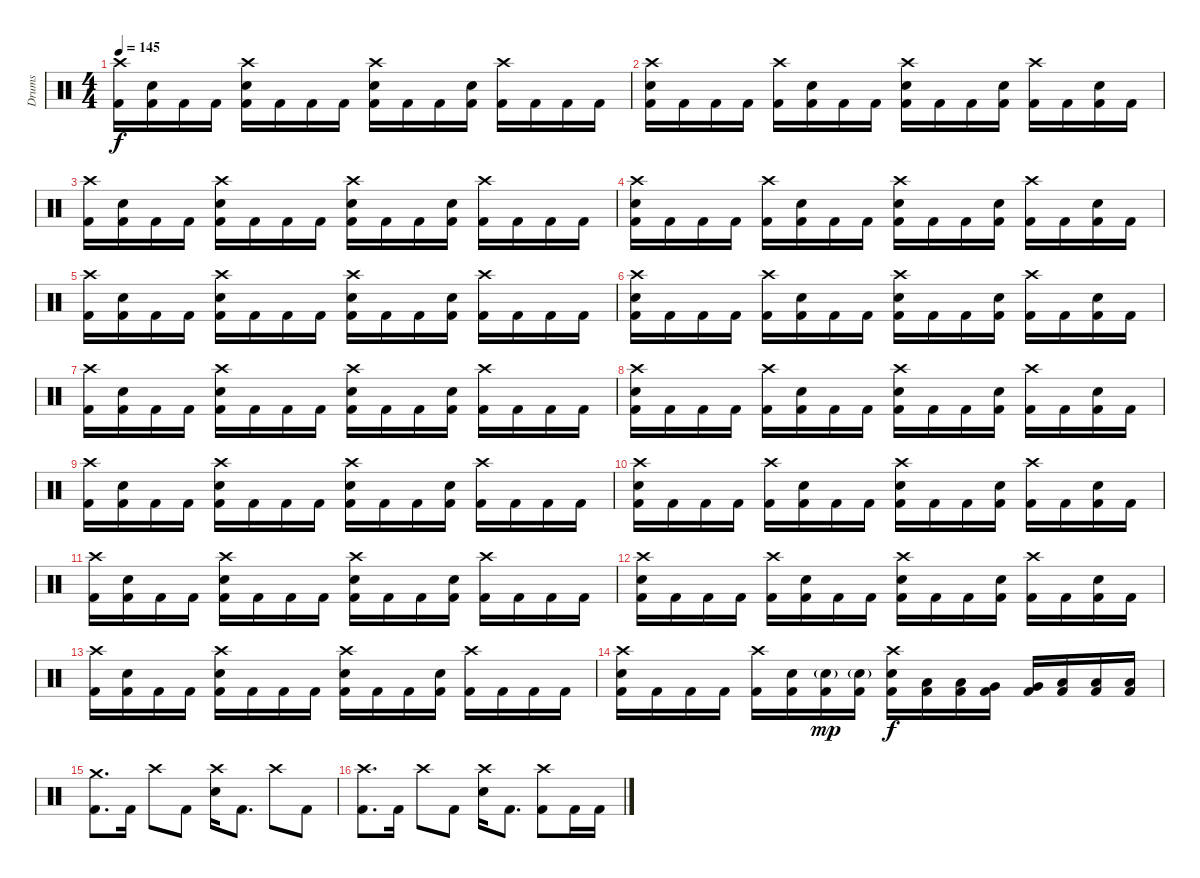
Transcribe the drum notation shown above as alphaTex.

\track ("Drums" "Drums") {instrument percussion}
\staff {score}
\articulation defaults
\ts (4 4)
\tempo 145
\clef neutral
\ks c
("Crash high (hit)" "Kick (hit) 2").16{dy f} ("Snare (hit) 2" "Kick (hit) 2").16 "Kick (hit) 2".16 "Kick (hit) 2".16 ("Crash high (hit)" "Snare (hit) 2" "Kick (hit) 2").16 "Kick (hit) 2".16 "Kick (hit) 2".16 "Kick (hit) 2".16 ("Crash high (hit)" "Snare (hit) 2" "Kick (hit) 2").16 "Kick (hit) 2".16 "Kick (hit) 2".16 ("Snare (hit) 2" "Kick (hit) 2").16 ("Crash high (hit)" "Kick (hit) 2").16 "Kick (hit) 2".16 "Kick (hit) 2".16 "Kick (hit) 2".16 |
("Crash high (hit)" "Snare (hit) 2" "Kick (hit) 2").16 "Kick (hit) 2".16 "Kick (hit) 2".16 "Kick (hit) 2".16 ("Crash high (hit)" "Kick (hit) 2").16 ("Snare (hit) 2" "Kick (hit) 2").16 "Kick (hit) 2".16 "Kick (hit) 2".16 ("Crash high (hit)" "Snare (hit) 2" "Kick (hit) 2").16 "Kick (hit) 2".16 "Kick (hit) 2".16 ("Snare (hit) 2" "Kick (hit) 2").16 ("Crash high (hit)" "Kick (hit) 2").16 "Kick (hit) 2".16 ("Snare (hit) 2" "Kick (hit) 2").16 "Kick (hit) 2".16 |
("Crash high (hit)" "Kick (hit) 2").16 ("Snare (hit) 2" "Kick (hit) 2").16 "Kick (hit) 2".16 "Kick (hit) 2".16 ("Crash high (hit)" "Snare (hit) 2" "Kick (hit) 2").16 "Kick (hit) 2".16 "Kick (hit) 2".16 "Kick (hit) 2".16 ("Crash high (hit)" "Snare (hit) 2" "Kick (hit) 2").16 "Kick (hit) 2".16 "Kick (hit) 2".16 ("Snare (hit) 2" "Kick (hit) 2").16 ("Crash high (hit)" "Kick (hit) 2").16 "Kick (hit) 2".16 "Kick (hit) 2".16 "Kick (hit) 2".16 |
("Crash high (hit)" "Snare (hit) 2" "Kick (hit) 2").16 "Kick (hit) 2".16 "Kick (hit) 2".16 "Kick (hit) 2".16 ("Crash high (hit)" "Kick (hit) 2").16 ("Snare (hit) 2" "Kick (hit) 2").16 "Kick (hit) 2".16 "Kick (hit) 2".16 ("Crash high (hit)" "Snare (hit) 2" "Kick (hit) 2").16 "Kick (hit) 2".16 "Kick (hit) 2".16 ("Snare (hit) 2" "Kick (hit) 2").16 ("Crash high (hit)" "Kick (hit) 2").16 "Kick (hit) 2".16 ("Snare (hit) 2" "Kick (hit) 2").16 "Kick (hit) 2".16 |
("Crash high (hit)" "Kick (hit) 2").16 ("Snare (hit) 2" "Kick (hit) 2").16 "Kick (hit) 2".16 "Kick (hit) 2".16 ("Crash high (hit)" "Snare (hit) 2" "Kick (hit) 2").16 "Kick (hit) 2".16 "Kick (hit) 2".16 "Kick (hit) 2".16 ("Crash high (hit)" "Snare (hit) 2" "Kick (hit) 2").16 "Kick (hit) 2".16 "Kick (hit) 2".16 ("Snare (hit) 2" "Kick (hit) 2").16 ("Crash high (hit)" "Kick (hit) 2").16 "Kick (hit) 2".16 "Kick (hit) 2".16 "Kick (hit) 2".16 |
("Crash high (hit)" "Snare (hit) 2" "Kick (hit) 2").16 "Kick (hit) 2".16 "Kick (hit) 2".16 "Kick (hit) 2".16 ("Crash high (hit)" "Kick (hit) 2").16 ("Snare (hit) 2" "Kick (hit) 2").16 "Kick (hit) 2".16 "Kick (hit) 2".16 ("Crash high (hit)" "Snare (hit) 2" "Kick (hit) 2").16 "Kick (hit) 2".16 "Kick (hit) 2".16 ("Snare (hit) 2" "Kick (hit) 2").16 ("Crash high (hit)" "Kick (hit) 2").16 "Kick (hit) 2".16 ("Snare (hit) 2" "Kick (hit) 2").16 "Kick (hit) 2".16 |
("Crash high (hit)" "Kick (hit) 2").16 ("Snare (hit) 2" "Kick (hit) 2").16 "Kick (hit) 2".16 "Kick (hit) 2".16 ("Crash high (hit)" "Snare (hit) 2" "Kick (hit) 2").16 "Kick (hit) 2".16 "Kick (hit) 2".16 "Kick (hit) 2".16 ("Crash high (hit)" "Snare (hit) 2" "Kick (hit) 2").16 "Kick (hit) 2".16 "Kick (hit) 2".16 ("Snare (hit) 2" "Kick (hit) 2").16 ("Crash high (hit)" "Kick (hit) 2").16 "Kick (hit) 2".16 "Kick (hit) 2".16 "Kick (hit) 2".16 |
("Crash high (hit)" "Snare (hit) 2" "Kick (hit) 2").16 "Kick (hit) 2".16 "Kick (hit) 2".16 "Kick (hit) 2".16 ("Crash high (hit)" "Kick (hit) 2").16 ("Snare (hit) 2" "Kick (hit) 2").16 "Kick (hit) 2".16 "Kick (hit) 2".16 ("Crash high (hit)" "Snare (hit) 2" "Kick (hit) 2").16 "Kick (hit) 2".16 "Kick (hit) 2".16 ("Snare (hit) 2" "Kick (hit) 2").16 ("Crash high (hit)" "Kick (hit) 2").16 "Kick (hit) 2".16 ("Snare (hit) 2" "Kick (hit) 2").16 "Kick (hit) 2".16 |
("Crash high (hit)" "Kick (hit) 2").16 ("Snare (hit) 2" "Kick (hit) 2").16 "Kick (hit) 2".16 "Kick (hit) 2".16 ("Crash high (hit)" "Snare (hit) 2" "Kick (hit) 2").16 "Kick (hit) 2".16 "Kick (hit) 2".16 "Kick (hit) 2".16 ("Crash high (hit)" "Snare (hit) 2" "Kick (hit) 2").16 "Kick (hit) 2".16 "Kick (hit) 2".16 ("Snare (hit) 2" "Kick (hit) 2").16 ("Crash high (hit)" "Kick (hit) 2").16 "Kick (hit) 2".16 "Kick (hit) 2".16 "Kick (hit) 2".16 |
("Crash high (hit)" "Snare (hit) 2" "Kick (hit) 2").16 "Kick (hit) 2".16 "Kick (hit) 2".16 "Kick (hit) 2".16 ("Crash high (hit)" "Kick (hit) 2").16 ("Snare (hit) 2" "Kick (hit) 2").16 "Kick (hit) 2".16 "Kick (hit) 2".16 ("Crash high (hit)" "Snare (hit) 2" "Kick (hit) 2").16 "Kick (hit) 2".16 "Kick (hit) 2".16 ("Snare (hit) 2" "Kick (hit) 2").16 ("Crash high (hit)" "Kick (hit) 2").16 "Kick (hit) 2".16 ("Snare (hit) 2" "Kick (hit) 2").16 "Kick (hit) 2".16 |
("Crash high (hit)" "Kick (hit) 2").16 ("Snare (hit) 2" "Kick (hit) 2").16 "Kick (hit) 2".16 "Kick (hit) 2".16 ("Crash high (hit)" "Snare (hit) 2" "Kick (hit) 2").16 "Kick (hit) 2".16 "Kick (hit) 2".16 "Kick (hit) 2".16 ("Crash high (hit)" "Snare (hit) 2" "Kick (hit) 2").16 "Kick (hit) 2".16 "Kick (hit) 2".16 ("Snare (hit) 2" "Kick (hit) 2").16 ("Crash high (hit)" "Kick (hit) 2").16 "Kick (hit) 2".16 "Kick (hit) 2".16 "Kick (hit) 2".16 |
("Crash high (hit)" "Snare (hit) 2" "Kick (hit) 2").16 "Kick (hit) 2".16 "Kick (hit) 2".16 "Kick (hit) 2".16 ("Crash high (hit)" "Kick (hit) 2").16 ("Snare (hit) 2" "Kick (hit) 2").16 "Kick (hit) 2".16 "Kick (hit) 2".16 ("Crash high (hit)" "Snare (hit) 2" "Kick (hit) 2").16 "Kick (hit) 2".16 "Kick (hit) 2".16 ("Snare (hit) 2" "Kick (hit) 2").16 ("Crash high (hit)" "Kick (hit) 2").16 "Kick (hit) 2".16 ("Snare (hit) 2" "Kick (hit) 2").16 "Kick (hit) 2".16 |
("Crash high (hit)" "Kick (hit) 2").16 ("Snare (hit) 2" "Kick (hit) 2").16 "Kick (hit) 2".16 "Kick (hit) 2".16 ("Crash high (hit)" "Snare (hit) 2" "Kick (hit) 2").16 "Kick (hit) 2".16 "Kick (hit) 2".16 "Kick (hit) 2".16 ("Crash high (hit)" "Snare (hit) 2" "Kick (hit) 2").16 "Kick (hit) 2".16 "Kick (hit) 2".16 ("Snare (hit) 2" "Kick (hit) 2").16 ("Crash high (hit)" "Kick (hit) 2").16 "Kick (hit) 2".16 "Kick (hit) 2".16 "Kick (hit) 2".16 |
("Crash high (hit)" "Snare (hit) 2" "Kick (hit) 2").16 "Kick (hit) 2".16 "Kick (hit) 2".16 "Kick (hit) 2".16 ("Crash high (hit)" "Kick (hit) 2").16 ("Snare (hit) 2" "Kick (hit) 2").16 ("Snare (hit) 2"{g} "Kick (hit) 2").16{dy mp} ("Snare (hit) 2"{g} "Kick (hit) 2").16 ("Crash high (hit)" "Snare (hit) 2" "Kick (hit) 2").16{dy f} ("Low Tom (hit)" "Kick (hit) 2").16 ("Low Tom (hit)" "Kick (hit) 2").16 ("Very Low Tom (hit)" "Kick (hit) 2").16 ("Very Low Tom (hit)" "Kick (hit) 2").16 ("Low Floor Tom (hit)" "Kick (hit) 2").16 ("Low Floor Tom (hit)" "Kick (hit) 2").16 ("Low Floor Tom (hit)" "Kick (hit) 2").16 |
("Crash medium (hit)" "Kick (hit) 2").8{d} "Kick (hit) 2".16 "Crash high (hit)".8 "Kick (hit) 2".8 ("Crash high (hit)" "Snare (hit) 2").16 "Kick (hit) 2".8{d} "Crash high (hit)".8 "Kick (hit) 2".8 |
("Crash high (hit)" "Kick (hit) 2").8{d} "Kick (hit) 2".16 "Crash high (hit)".8 "Kick (hit) 2".8 ("Crash high (hit)" "Snare (hit) 2").16 "Kick (hit) 2".8{d} ("Crash high (hit)" "Kick (hit) 2").8 "Kick (hit) 2".16 "Kick (hit) 2".16
